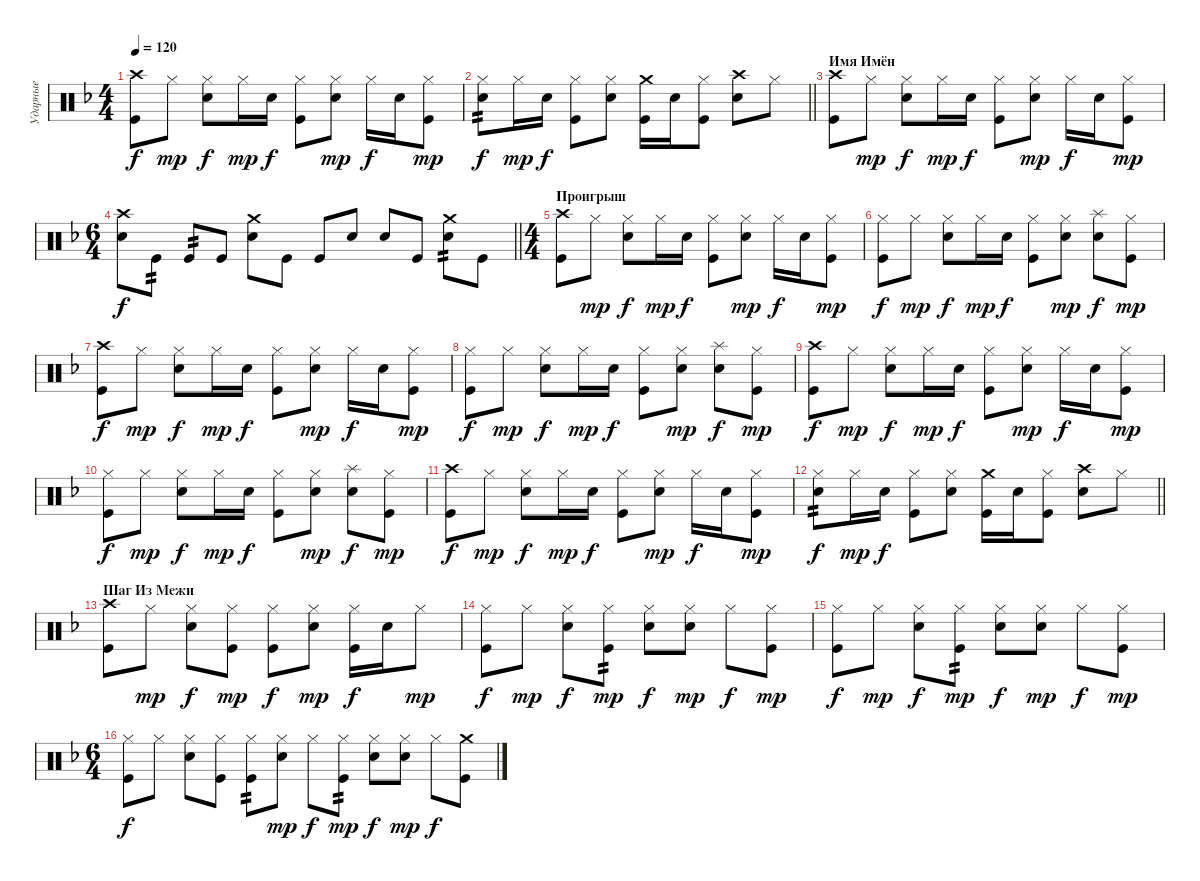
\track ("Ударные" "Ударные") {instrument percussion}
\staff {score}
\articulation defaults
\ts (4 4)
\tempo 120
\clef neutral
\ks dminor
("Crash high (hit)" "Kick (hit)").8{dy f} "Hi-Hat (closed)".8{dy mp} ("Hi-Hat (closed)" "Snare (hit) 2").8{dy f} "Hi-Hat (closed)".16{dy mp} "Snare (hit) 2".16{dy f} ("Hi-Hat (closed)" "Kick (hit)").8 ("Hi-Hat (closed)" "Snare (hit) 2").8{dy mp} "Hi-Hat (closed)".16{dy f} "Snare (hit) 2".16 ("Hi-Hat (closed)" "Kick (hit)").8{dy mp} |
\barLineRight lightlight
("Hi-Hat (closed)" "Snare (hit) 2").8{tp 2 dy f} "Hi-Hat (closed)".16{dy mp} "Snare (hit) 2".16{dy f} ("Hi-Hat (closed)" "Kick (hit)").8 ("Hi-Hat (closed)" "Snare (hit) 2").8 ("Crash medium (hit)" "Kick (hit)").16 "Snare (hit) 2".16 ("Hi-Hat (closed)" "Kick (hit)").8 ("Crash high (hit)" "Snare (hit) 2").8 "Hi-Hat (closed)".8 |
\section ("" "Имя Имён")
("Crash high (hit)" "Kick (hit)").8 "Hi-Hat (closed)".8{dy mp} ("Hi-Hat (closed)" "Snare (hit) 2").8{dy f} "Hi-Hat (closed)".16{dy mp} "Snare (hit) 2".16{dy f} ("Hi-Hat (closed)" "Kick (hit)").8 ("Hi-Hat (closed)" "Snare (hit) 2").8{dy mp} "Hi-Hat (closed)".16{dy f} "Snare (hit) 2".16 ("Hi-Hat (closed)" "Kick (hit)").8{dy mp} |
\ts (6 4)
\barLineRight lightlight
("Crash high (hit)" "Snare (hit) 2").8{dy f} "Kick (hit)".8{tp 2} "Kick (hit)".8{tp 2} "Kick (hit)".8 ("Crash medium (hit)" "Snare (hit) 2").8 "Kick (hit)".8 "Kick (hit)".8 "Snare (hit) 2".8 "Snare (hit) 2".8 "Kick (hit)".8 ("Crash medium (hit)" "Snare (hit) 2").8{tp 2} "Kick (hit)".8 |
\ts (4 4)
\section ("" "Проигрыш")
("Crash high (hit)" "Kick (hit)").8 "Hi-Hat (closed)".8{dy mp} ("Hi-Hat (closed)" "Snare (hit) 2").8{dy f} "Hi-Hat (closed)".16{dy mp} "Snare (hit) 2".16{dy f} ("Hi-Hat (closed)" "Kick (hit)").8 ("Hi-Hat (closed)" "Snare (hit) 2").8{dy mp} "Hi-Hat (closed)".16{dy f} "Snare (hit) 2".16 ("Hi-Hat (closed)" "Kick (hit)").8{dy mp} |
("Hi-Hat (closed)" "Kick (hit)").8{dy f} "Hi-Hat (closed)".8{dy mp} ("Hi-Hat (closed)" "Snare (hit) 2").8{dy f} "Hi-Hat (closed)".16{dy mp} "Snare (hit) 2".16{dy f} ("Hi-Hat (closed)" "Kick (hit)").8 ("Hi-Hat (closed)" "Snare (hit) 2").8{dy mp} ("Splash (hit)" "Snare (hit) 2").8{dy f} ("Hi-Hat (closed)" "Kick (hit)").8{dy mp} |
("Crash high (hit)" "Kick (hit)").8{dy f} "Hi-Hat (closed)".8{dy mp} ("Hi-Hat (closed)" "Snare (hit) 2").8{dy f} "Hi-Hat (closed)".16{dy mp} "Snare (hit) 2".16{dy f} ("Hi-Hat (closed)" "Kick (hit)").8 ("Hi-Hat (closed)" "Snare (hit) 2").8{dy mp} "Hi-Hat (closed)".16{dy f} "Snare (hit) 2".16 ("Hi-Hat (closed)" "Kick (hit)").8{dy mp} |
("Hi-Hat (closed)" "Kick (hit)").8{dy f} "Hi-Hat (closed)".8{dy mp} ("Hi-Hat (closed)" "Snare (hit) 2").8{dy f} "Hi-Hat (closed)".16{dy mp} "Snare (hit) 2".16{dy f} ("Hi-Hat (closed)" "Kick (hit)").8 ("Hi-Hat (closed)" "Snare (hit) 2").8{dy mp} ("Splash (hit)" "Snare (hit) 2").8{dy f} ("Hi-Hat (closed)" "Kick (hit)").8{dy mp} |
("Crash high (hit)" "Kick (hit)").8{dy f} "Hi-Hat (closed)".8{dy mp} ("Hi-Hat (closed)" "Snare (hit) 2").8{dy f} "Hi-Hat (closed)".16{dy mp} "Snare (hit) 2".16{dy f} ("Hi-Hat (closed)" "Kick (hit)").8 ("Hi-Hat (closed)" "Snare (hit) 2").8{dy mp} "Hi-Hat (closed)".16{dy f} "Snare (hit) 2".16 ("Hi-Hat (closed)" "Kick (hit)").8{dy mp} |
("Hi-Hat (closed)" "Kick (hit)").8{dy f} "Hi-Hat (closed)".8{dy mp} ("Hi-Hat (closed)" "Snare (hit) 2").8{dy f} "Hi-Hat (closed)".16{dy mp} "Snare (hit) 2".16{dy f} ("Hi-Hat (closed)" "Kick (hit)").8 ("Hi-Hat (closed)" "Snare (hit) 2").8{dy mp} ("Splash (hit)" "Snare (hit) 2").8{dy f} ("Hi-Hat (closed)" "Kick (hit)").8{dy mp} |
("Crash high (hit)" "Kick (hit)").8{dy f} "Hi-Hat (closed)".8{dy mp} ("Hi-Hat (closed)" "Snare (hit) 2").8{dy f} "Hi-Hat (closed)".16{dy mp} "Snare (hit) 2".16{dy f} ("Hi-Hat (closed)" "Kick (hit)").8 ("Hi-Hat (closed)" "Snare (hit) 2").8{dy mp} "Hi-Hat (closed)".16{dy f} "Snare (hit) 2".16 ("Hi-Hat (closed)" "Kick (hit)").8{dy mp} |
\barLineRight lightlight
("Hi-Hat (closed)" "Snare (hit) 2").8{tp 2 dy f} "Hi-Hat (closed)".16{dy mp} "Snare (hit) 2".16{dy f} ("Hi-Hat (closed)" "Kick (hit)").8 ("Hi-Hat (closed)" "Snare (hit) 2").8 ("Crash medium (hit)" "Kick (hit)").16 "Snare (hit) 2".16 ("Hi-Hat (closed)" "Kick (hit)").8 ("Crash high (hit)" "Snare (hit) 2").8 "Hi-Hat (closed)".8 |
\section ("" "Шаг Из Межи")
("Crash high (hit)" "Kick (hit)").8 "Hi-Hat (closed)".8{dy mp} ("Hi-Hat (closed)" "Snare (hit) 2").8{dy f} ("Hi-Hat (closed)" "Kick (hit)").8{dy mp} ("Hi-Hat (closed)" "Kick (hit)").8{dy f} ("Hi-Hat (closed)" "Snare (hit) 2").8{dy mp} ("Hi-Hat (closed)" "Kick (hit)").16{dy f} "Snare (hit) 2".16 "Hi-Hat (closed)".8{dy mp} |
("Hi-Hat (closed)" "Kick (hit)").8{dy f} "Hi-Hat (closed)".8{dy mp} ("Hi-Hat (closed)" "Snare (hit) 2").8{dy f} ("Hi-Hat (closed)" "Kick (hit)").8{tp 2 dy mp} ("Hi-Hat (closed)" "Snare (hit) 2").8{dy f} ("Hi-Hat (closed)" "Snare (hit) 2").8{dy mp} "Hi-Hat (closed)".8{dy f} ("Hi-Hat (closed)" "Kick (hit)").8{dy mp} |
("Hi-Hat (closed)" "Kick (hit)").8{dy f} "Hi-Hat (closed)".8{dy mp} ("Hi-Hat (closed)" "Snare (hit) 2").8{dy f} ("Hi-Hat (closed)" "Kick (hit)").8{tp 2 dy mp} ("Hi-Hat (closed)" "Snare (hit) 2").8{dy f} ("Hi-Hat (closed)" "Snare (hit) 2").8{dy mp} "Hi-Hat (closed)".8{dy f} ("Hi-Hat (closed)" "Kick (hit)").8{dy mp} |
\ts (6 4)
("Hi-Hat (closed)" "Kick (hit)").8{dy f} "Hi-Hat (closed)".8 ("Hi-Hat (closed)" "Snare (hit) 2").8 ("Hi-Hat (closed)" "Kick (hit)").8 ("Hi-Hat (closed)" "Kick (hit)").8{tp 2} ("Hi-Hat (closed)" "Snare (hit) 2").8{dy mp} "Hi-Hat (closed)".8{dy f} ("Hi-Hat (closed)" "Kick (hit)").8{tp 2 dy mp} ("Hi-Hat (closed)" "Snare (hit) 2").8{dy f} ("Hi-Hat (closed)" "Snare (hit) 2").8{dy mp} "Hi-Hat (closed)".8{dy f} ("Crash medium (hit)" "Kick (hit)").8
